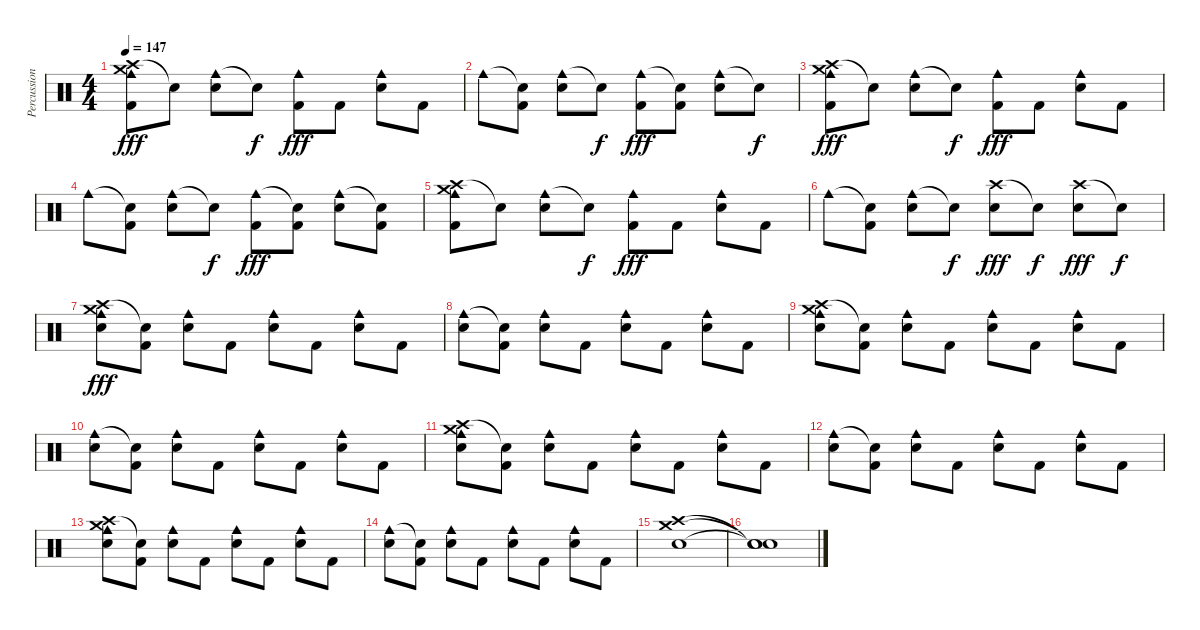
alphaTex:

\track ("Percussion" "Percussion") {instrument percussion}
\staff {score}
\articulation defaults
\ts (4 4)
\tempo 147
\clef neutral
\ks c
("Crash high (hit)" "Crash medium (hit)" "Cowbell medium (hit)" "Kick (hit) 2").8{dy fff} "Snare (hit)"{t}.8 ("Cowbell medium (hit)" "Electric Snare (hit)").8 "Snare (hit)"{t}.8{dy f} ("Cowbell medium (hit)" "Kick (hit) 2").8{dy fff} "Kick (hit) 2".8 ("Cowbell medium (hit)" "Electric Snare (hit)").8 "Kick (hit) 2".8 |
"Cowbell medium (hit)".8 ("Snare (hit)"{t} "Kick (hit) 2").8 ("Cowbell medium (hit)" "Electric Snare (hit)").8 "Snare (hit)"{t}.8{dy f} ("Cowbell medium (hit)" "Kick (hit) 2").8{dy fff} ("Snare (hit)"{t} "Kick (hit) 2").8 ("Cowbell medium (hit)" "Electric Snare (hit)").8 "Snare (hit)"{t}.8{dy f} |
("Crash high (hit)" "Crash medium (hit)" "Cowbell medium (hit)" "Kick (hit) 2").8{dy fff} "Snare (hit)"{t}.8 ("Cowbell medium (hit)" "Electric Snare (hit)").8 "Snare (hit)"{t}.8{dy f} ("Cowbell medium (hit)" "Kick (hit) 2").8{dy fff} "Kick (hit) 2".8 ("Cowbell medium (hit)" "Electric Snare (hit)").8 "Kick (hit) 2".8 |
"Cowbell medium (hit)".8 ("Snare (hit)"{t} "Kick (hit) 2").8 ("Cowbell medium (hit)" "Electric Snare (hit)").8 "Snare (hit)"{t}.8{dy f} ("Cowbell medium (hit)" "Kick (hit) 2").8{dy fff} ("Snare (hit)"{t} "Kick (hit) 2").8 ("Cowbell medium (hit)" "Electric Snare (hit)").8 ("Snare (hit)"{t} "Kick (hit) 2").8 |
("Crash high (hit)" "Crash medium (hit)" "Cowbell medium (hit)" "Kick (hit) 2").8 "Snare (hit)"{t}.8 ("Cowbell medium (hit)" "Electric Snare (hit)").8 "Snare (hit)"{t}.8{dy f} ("Cowbell medium (hit)" "Kick (hit) 2").8{dy fff} "Kick (hit) 2".8 ("Cowbell medium (hit)" "Electric Snare (hit)").8 "Kick (hit) 2".8 |
"Cowbell medium (hit)".8 ("Snare (hit)"{t} "Kick (hit) 2").8 ("Cowbell medium (hit)" "Electric Snare (hit)").8 "Snare (hit)"{t}.8{dy f} ("Crash high (hit)" "Electric Snare (hit)").8{dy fff} "Snare (hit)"{t}.8{dy f} ("Crash high (hit)" "Electric Snare (hit)").8{dy fff} "Snare (hit)"{t}.8{dy f} |
("Crash high (hit)" "Crash medium (hit)" "Cowbell medium (hit)" "Electric Snare (hit)").8{dy fff} ("Snare (hit)"{t} "Kick (hit) 2").8 ("Cowbell medium (hit)" "Electric Snare (hit)").8 "Kick (hit) 2".8 ("Cowbell medium (hit)" "Electric Snare (hit)").8 "Kick (hit) 2".8 ("Cowbell medium (hit)" "Electric Snare (hit)").8 "Kick (hit) 2".8 |
("Cowbell medium (hit)" "Electric Snare (hit)").8 ("Snare (hit)"{t} "Kick (hit) 2").8 ("Cowbell medium (hit)" "Electric Snare (hit)").8 "Kick (hit) 2".8 ("Cowbell medium (hit)" "Electric Snare (hit)").8 "Kick (hit) 2".8 ("Cowbell medium (hit)" "Electric Snare (hit)").8 "Kick (hit) 2".8 |
("Crash high (hit)" "Crash medium (hit)" "Cowbell medium (hit)" "Electric Snare (hit)").8 ("Snare (hit)"{t} "Kick (hit) 2").8 ("Cowbell medium (hit)" "Electric Snare (hit)").8 "Kick (hit) 2".8 ("Cowbell medium (hit)" "Electric Snare (hit)").8 "Kick (hit) 2".8 ("Cowbell medium (hit)" "Electric Snare (hit)").8 "Kick (hit) 2".8 |
("Cowbell medium (hit)" "Electric Snare (hit)").8 ("Snare (hit)"{t} "Kick (hit) 2").8 ("Cowbell medium (hit)" "Electric Snare (hit)").8 "Kick (hit) 2".8 ("Cowbell medium (hit)" "Electric Snare (hit)").8 "Kick (hit) 2".8 ("Cowbell medium (hit)" "Electric Snare (hit)").8 "Kick (hit) 2".8 |
("Crash high (hit)" "Crash medium (hit)" "Cowbell medium (hit)" "Electric Snare (hit)").8 ("Snare (hit)"{t} "Kick (hit) 2").8 ("Cowbell medium (hit)" "Electric Snare (hit)").8 "Kick (hit) 2".8 ("Cowbell medium (hit)" "Electric Snare (hit)").8 "Kick (hit) 2".8 ("Cowbell medium (hit)" "Electric Snare (hit)").8 "Kick (hit) 2".8 |
("Cowbell medium (hit)" "Electric Snare (hit)").8 ("Snare (hit)"{t} "Kick (hit) 2").8 ("Cowbell medium (hit)" "Electric Snare (hit)").8 "Kick (hit) 2".8 ("Cowbell medium (hit)" "Electric Snare (hit)").8 "Kick (hit) 2".8 ("Cowbell medium (hit)" "Electric Snare (hit)").8 "Kick (hit) 2".8 |
("Crash high (hit)" "Crash medium (hit)" "Cowbell medium (hit)" "Electric Snare (hit)").8 ("Snare (hit)"{t} "Kick (hit) 2").8 ("Cowbell medium (hit)" "Electric Snare (hit)").8 "Kick (hit) 2".8 ("Cowbell medium (hit)" "Electric Snare (hit)").8 "Kick (hit) 2".8 ("Cowbell medium (hit)" "Electric Snare (hit)").8 "Kick (hit) 2".8 |
("Cowbell medium (hit)" "Electric Snare (hit)").8 ("Snare (hit)"{t} "Kick (hit) 2").8 ("Cowbell medium (hit)" "Electric Snare (hit)").8 "Kick (hit) 2".8 ("Cowbell medium (hit)" "Electric Snare (hit)").8 "Kick (hit) 2".8 ("Cowbell medium (hit)" "Electric Snare (hit)").8 "Kick (hit) 2".8 |
("Crash high (hit)" "Crash medium (hit)" "Electric Snare (hit)").1 |
("Snare (hit)"{t} "Snare (hit)"{t} "Snare (hit)"{t}).1
